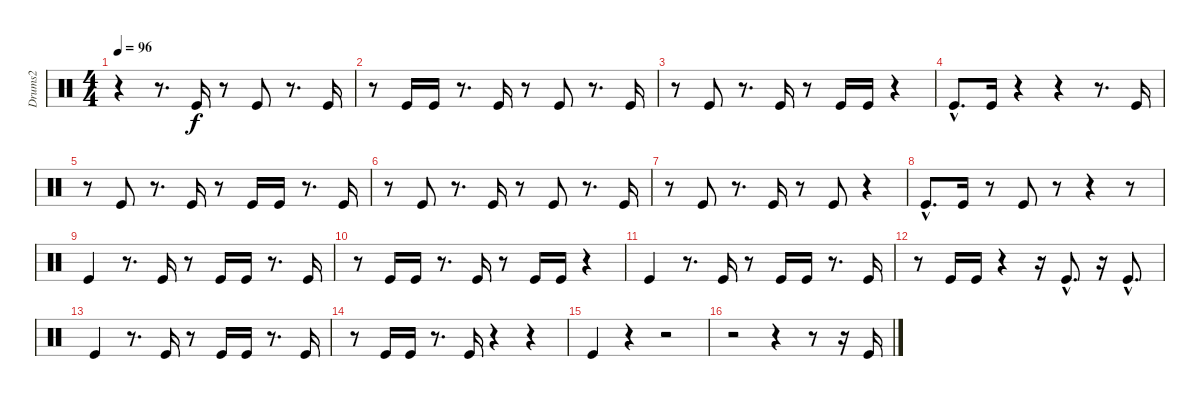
\track ("Drums2" "Drums2") {instrument percussion}
\staff {score}
\articulation defaults
\ts (4 4)
\tempo 96
\clef neutral
\ks c
r.4{dy f} r.8{d} "Kick (hit)".16 r.8 "Kick (hit)".8 r.8{d} "Kick (hit)".16 |
r.8 "Kick (hit)".16 "Kick (hit)".16 r.8{d} "Kick (hit)".16 r.8 "Kick (hit)".8 r.8{d} "Kick (hit)".16 |
r.8 "Kick (hit)".8 r.8{d} "Kick (hit)".16 r.8 "Kick (hit)".16 "Kick (hit)".16 r.4 |
"Kick (hit)"{hac}.8{d} "Kick (hit)".16 r.4 r.4 r.8{d} "Kick (hit)".16 |
r.8 "Kick (hit)".8 r.8{d} "Kick (hit)".16 r.8 "Kick (hit)".16 "Kick (hit)".16 r.8{d} "Kick (hit)".16 |
r.8 "Kick (hit)".8 r.8{d} "Kick (hit)".16 r.8 "Kick (hit)".8 r.8{d} "Kick (hit)".16 |
r.8 "Kick (hit)".8 r.8{d} "Kick (hit)".16 r.8 "Kick (hit)".8 r.4 |
"Kick (hit)"{hac}.8{d} "Kick (hit)".16 r.8 "Kick (hit)".8 r.8 r.4 r.8 |
"Kick (hit)".4 r.8{d} "Kick (hit)".16 r.8 "Kick (hit)".16 "Kick (hit)".16 r.8{d} "Kick (hit)".16 |
r.8 "Kick (hit)".16 "Kick (hit)".16 r.8{d} "Kick (hit)".16 r.8 "Kick (hit)".16 "Kick (hit)".16 r.4 |
"Kick (hit)".4 r.8{d} "Kick (hit)".16 r.8 "Kick (hit)".16 "Kick (hit)".16 r.8{d} "Kick (hit)".16 |
r.8 "Kick (hit)".16 "Kick (hit)".16 r.4 r.16 "Kick (hit)"{hac}.8{d} r.16 "Kick (hit)"{hac}.8{d} |
"Kick (hit)".4 r.8{d} "Kick (hit)".16 r.8 "Kick (hit)".16 "Kick (hit)".16 r.8{d} "Kick (hit)".16 |
r.8 "Kick (hit)".16 "Kick (hit)".16 r.8{d} "Kick (hit)".16 r.4 r.4 |
"Kick (hit)".4 r.4 r.2 |
r.2 r.4 r.8 r.16 "Kick (hit)".16
